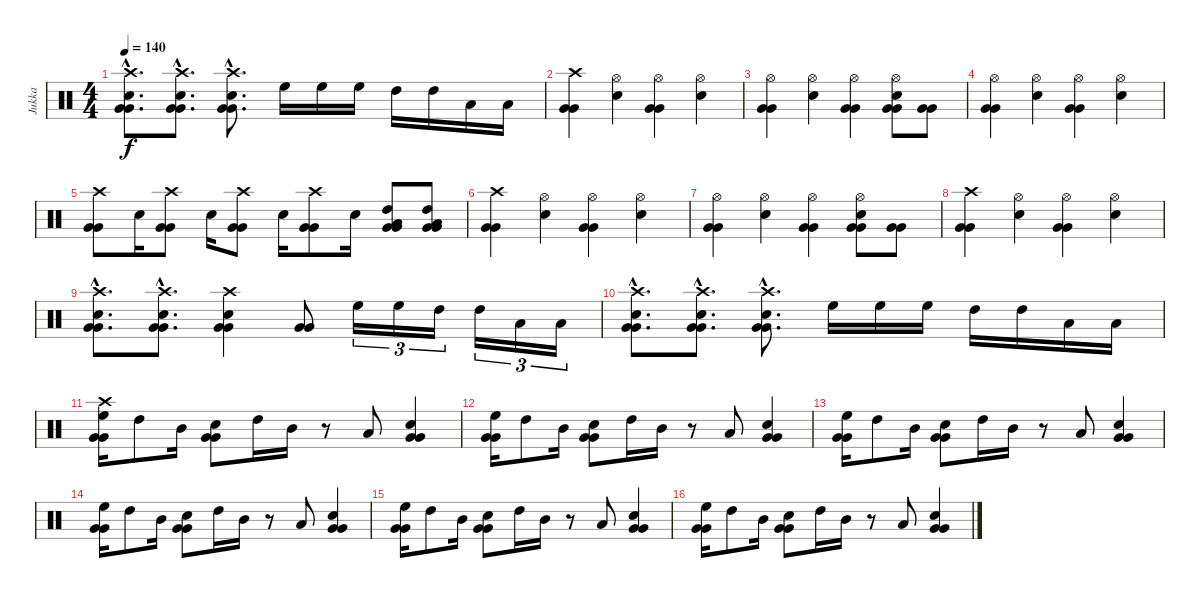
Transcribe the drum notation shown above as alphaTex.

\track ("Jukka" "Jukka") {instrument percussion}
\staff {score}
\articulation defaults
\ts (4 4)
\tempo 140
\clef neutral
\ks c
("Crash high (hit)"{hac} "Electric Snare (hit)"{hac} "Very Low Tom (hit)"{hac} "Very Low Tom (hit)"{hac}).8{d dy f} ("Crash high (hit)"{hac} "Electric Snare (hit)"{hac} "Very Low Tom (hit)"{hac} "Very Low Tom (hit)"{hac}).8{d} ("Crash high (hit)"{hac} "Electric Snare (hit)"{hac} "Very Low Tom (hit)"{hac} "Very Low Tom (hit)"{hac}).8{d} "High Floor Tom (hit)".16 "High Floor Tom (hit)".16 "High Floor Tom (hit)".16 "High Tom (hit)".16 "High Tom (hit)".16 "Low Tom (hit)".16 "Low Tom (hit)".16 |
("Crash high (hit)" "Very Low Tom (hit)" "Very Low Tom (hit)").4 ("Hi-Hat (open)" "Electric Snare (hit)").4 ("Hi-Hat (open)" "Very Low Tom (hit)" "Very Low Tom (hit)").4 ("Hi-Hat (open)" "Electric Snare (hit)").4 |
("Hi-Hat (open)" "Very Low Tom (hit)" "Very Low Tom (hit)").4 ("Hi-Hat (open)" "Electric Snare (hit)").4 ("Hi-Hat (open)" "Very Low Tom (hit)" "Very Low Tom (hit)").4 ("Hi-Hat (open)" "Electric Snare (hit)" "Very Low Tom (hit)" "Very Low Tom (hit)").8 ("Very Low Tom (hit)" "Very Low Tom (hit)").8 |
("Hi-Hat (open)" "Very Low Tom (hit)" "Very Low Tom (hit)").4 ("Hi-Hat (open)" "Electric Snare (hit)").4 ("Hi-Hat (open)" "Very Low Tom (hit)" "Very Low Tom (hit)").4 ("Hi-Hat (open)" "Electric Snare (hit)").4 |
("Crash high (hit)" "Very Low Tom (hit)" "Very Low Tom (hit)").8 "Electric Snare (hit)".16 ("Crash high (hit)" "Very Low Tom (hit)" "Very Low Tom (hit)").8 "Electric Snare (hit)".16 ("Crash high (hit)" "Very Low Tom (hit)" "Very Low Tom (hit)").8 "Electric Snare (hit)".16 ("Crash high (hit)" "Very Low Tom (hit)" "Very Low Tom (hit)").8 "Electric Snare (hit)".16 ("High Tom (hit)" "Low Tom (hit)" "Very Low Tom (hit)" "Very Low Tom (hit)").8 ("High Tom (hit)" "Low Tom (hit)" "Very Low Tom (hit)" "Very Low Tom (hit)").8 |
("Crash high (hit)" "Very Low Tom (hit)" "Very Low Tom (hit)").4 ("Hi-Hat (open)" "Electric Snare (hit)").4 ("Hi-Hat (open)" "Very Low Tom (hit)" "Very Low Tom (hit)").4 ("Hi-Hat (open)" "Electric Snare (hit)").4 |
("Hi-Hat (open)" "Very Low Tom (hit)" "Very Low Tom (hit)").4 ("Hi-Hat (open)" "Electric Snare (hit)").4 ("Hi-Hat (open)" "Very Low Tom (hit)" "Very Low Tom (hit)").4 ("Hi-Hat (open)" "Electric Snare (hit)" "Very Low Tom (hit)" "Very Low Tom (hit)").8 ("Very Low Tom (hit)" "Very Low Tom (hit)").8 |
("Crash high (hit)" "Very Low Tom (hit)" "Very Low Tom (hit)").4 ("Hi-Hat (open)" "Electric Snare (hit)").4 ("Hi-Hat (open)" "Very Low Tom (hit)" "Very Low Tom (hit)").4 ("Hi-Hat (open)" "Electric Snare (hit)").4 |
("Crash high (hit)"{hac} "Electric Snare (hit)"{hac} "Very Low Tom (hit)"{hac} "Very Low Tom (hit)"{hac}).8{d} ("Crash high (hit)"{hac} "Electric Snare (hit)"{hac} "Very Low Tom (hit)"{hac} "Very Low Tom (hit)"{hac}).8{d} ("Crash high (hit)" "Electric Snare (hit)" "Very Low Tom (hit)" "Very Low Tom (hit)").4 ("Very Low Tom (hit)" "Very Low Tom (hit)").8 "High Floor Tom (hit)".16{tu (3 2)} "High Floor Tom (hit)".16{tu (3 2)} "High Tom (hit)".16{tu (3 2)} "High Tom (hit)".16{tu (3 2)} "Low Tom (hit)".16{tu (3 2)} "Low Tom (hit)".16{tu (3 2)} |
("Crash high (hit)"{hac} "Electric Snare (hit)"{hac} "Very Low Tom (hit)"{hac} "Very Low Tom (hit)"{hac}).8{d} ("Crash high (hit)"{hac} "Electric Snare (hit)"{hac} "Very Low Tom (hit)"{hac} "Very Low Tom (hit)"{hac}).8{d} ("Crash high (hit)"{hac} "Electric Snare (hit)"{hac} "Very Low Tom (hit)"{hac} "Very Low Tom (hit)"{hac}).8{d} "High Floor Tom (hit)".16 "High Floor Tom (hit)".16 "High Floor Tom (hit)".16 "High Tom (hit)".16 "High Tom (hit)".16 "Low Tom (hit)".16 "Low Tom (hit)".16 |
("Crash high (hit)" "High Floor Tom (hit)" "Very Low Tom (hit)" "Very Low Tom (hit)").16 "High Tom (hit)".8 "Mid Tom (hit)".16 ("Electric Snare (hit)" "Very Low Tom (hit)" "Very Low Tom (hit)").8 "High Tom (hit)".16 "Mid Tom (hit)".16 r.8 "Low Tom (hit)".8 ("Electric Snare (hit)" "Very Low Tom (hit)" "Very Low Tom (hit)").4 |
("High Floor Tom (hit)" "Very Low Tom (hit)" "Very Low Tom (hit)").16 "High Tom (hit)".8 "Mid Tom (hit)".16 ("Electric Snare (hit)" "Very Low Tom (hit)" "Very Low Tom (hit)").8 "High Tom (hit)".16 "Mid Tom (hit)".16 r.8 "Low Tom (hit)".8 ("Electric Snare (hit)" "Very Low Tom (hit)" "Very Low Tom (hit)").4 |
("High Floor Tom (hit)" "Very Low Tom (hit)" "Very Low Tom (hit)").16 "High Tom (hit)".8 "Mid Tom (hit)".16 ("Electric Snare (hit)" "Very Low Tom (hit)" "Very Low Tom (hit)").8 "High Tom (hit)".16 "Mid Tom (hit)".16 r.8 "Low Tom (hit)".8 ("Electric Snare (hit)" "Very Low Tom (hit)" "Very Low Tom (hit)").4 |
("High Floor Tom (hit)" "Very Low Tom (hit)" "Very Low Tom (hit)").16 "High Tom (hit)".8 "Mid Tom (hit)".16 ("Electric Snare (hit)" "Very Low Tom (hit)" "Very Low Tom (hit)").8 "High Tom (hit)".16 "Mid Tom (hit)".16 r.8 "Low Tom (hit)".8 ("Electric Snare (hit)" "Very Low Tom (hit)" "Very Low Tom (hit)").4 |
("High Floor Tom (hit)" "Very Low Tom (hit)" "Very Low Tom (hit)").16 "High Tom (hit)".8 "Mid Tom (hit)".16 ("Electric Snare (hit)" "Very Low Tom (hit)" "Very Low Tom (hit)").8 "High Tom (hit)".16 "Mid Tom (hit)".16 r.8 "Low Tom (hit)".8 ("Electric Snare (hit)" "Very Low Tom (hit)" "Very Low Tom (hit)").4 |
("High Floor Tom (hit)" "Very Low Tom (hit)" "Very Low Tom (hit)").16 "High Tom (hit)".8 "Mid Tom (hit)".16 ("Electric Snare (hit)" "Very Low Tom (hit)" "Very Low Tom (hit)").8 "High Tom (hit)".16 "Mid Tom (hit)".16 r.8 "Low Tom (hit)".8 ("Electric Snare (hit)" "Very Low Tom (hit)" "Very Low Tom (hit)").4
